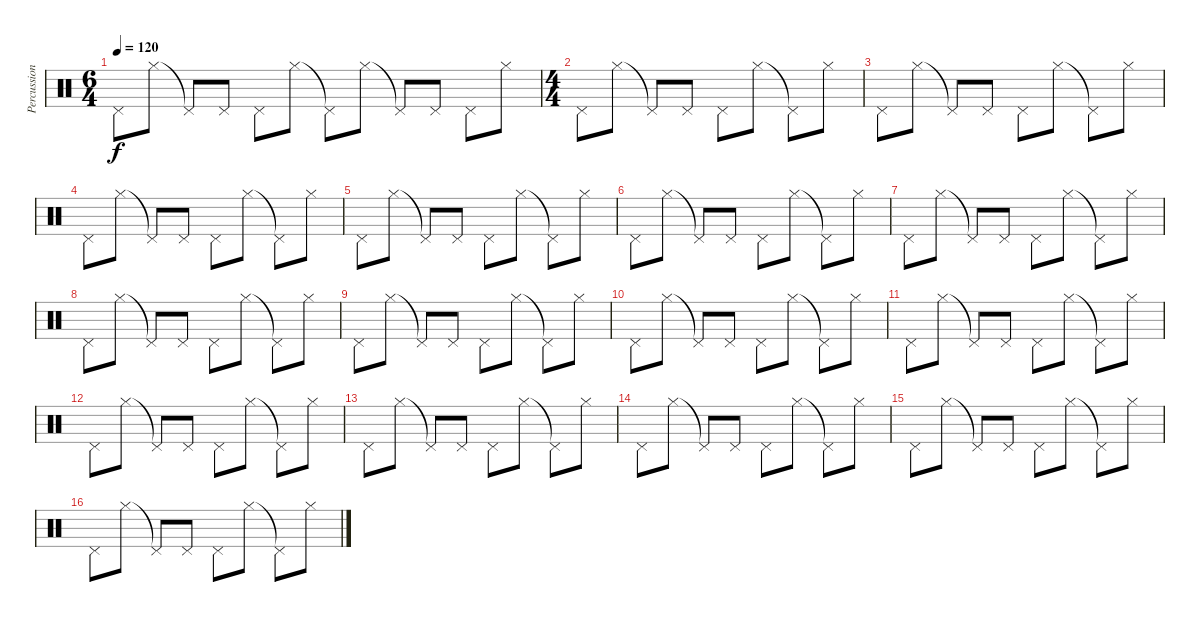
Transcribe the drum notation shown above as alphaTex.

\track ("Percussions" "Percussion") {instrument percussion}
\staff {score}
\articulation defaults
\ts (6 4)
\tempo 120
\clef neutral
\ks c "Pedal Hi-Hat (hit)".8{dy f} "Hi-Hat (closed)".8 "Pedal Hi-Hat (hit)"{t}.8 "Pedal Hi-Hat (hit)".8 "Pedal Hi-Hat (hit)".8 "Hi-Hat (closed)".8 "Pedal Hi-Hat (hit)"{t}.8 "Hi-Hat (closed)".8 "Pedal Hi-Hat (hit)"{t}.8 "Pedal Hi-Hat (hit)".8 "Pedal Hi-Hat (hit)".8 "Hi-Hat (closed)".8
|
\ts (4 4)
"Pedal Hi-Hat (hit)".8 "Hi-Hat (closed)".8 "Pedal Hi-Hat (hit)"{t}.8 "Pedal Hi-Hat (hit)".8 "Pedal Hi-Hat (hit)".8 "Hi-Hat (closed)".8 "Pedal Hi-Hat (hit)"{t}.8 "Hi-Hat (closed)".8 |
"Pedal Hi-Hat (hit)".8 "Hi-Hat (closed)".8 "Pedal Hi-Hat (hit)"{t}.8 "Pedal Hi-Hat (hit)".8 "Pedal Hi-Hat (hit)".8 "Hi-Hat (closed)".8 "Pedal Hi-Hat (hit)"{t}.8 "Hi-Hat (closed)".8 |
"Pedal Hi-Hat (hit)".8 "Hi-Hat (closed)".8 "Pedal Hi-Hat (hit)"{t}.8 "Pedal Hi-Hat (hit)".8 "Pedal Hi-Hat (hit)".8 "Hi-Hat (closed)".8 "Pedal Hi-Hat (hit)"{t}.8 "Hi-Hat (closed)".8 |
"Pedal Hi-Hat (hit)".8 "Hi-Hat (closed)".8 "Pedal Hi-Hat (hit)"{t}.8 "Pedal Hi-Hat (hit)".8 "Pedal Hi-Hat (hit)".8 "Hi-Hat (closed)".8 "Pedal Hi-Hat (hit)"{t}.8 "Hi-Hat (closed)".8 |
"Pedal Hi-Hat (hit)".8 "Hi-Hat (closed)".8 "Pedal Hi-Hat (hit)"{t}.8 "Pedal Hi-Hat (hit)".8 "Pedal Hi-Hat (hit)".8 "Hi-Hat (closed)".8 "Pedal Hi-Hat (hit)"{t}.8 "Hi-Hat (closed)".8 |
"Pedal Hi-Hat (hit)".8 "Hi-Hat (closed)".8 "Pedal Hi-Hat (hit)"{t}.8 "Pedal Hi-Hat (hit)".8 "Pedal Hi-Hat (hit)".8 "Hi-Hat (closed)".8 "Pedal Hi-Hat (hit)"{t}.8 "Hi-Hat (closed)".8 |
"Pedal Hi-Hat (hit)".8 "Hi-Hat (closed)".8 "Pedal Hi-Hat (hit)"{t}.8 "Pedal Hi-Hat (hit)".8 "Pedal Hi-Hat (hit)".8 "Hi-Hat (closed)".8 "Pedal Hi-Hat (hit)"{t}.8 "Hi-Hat (closed)".8 |
"Pedal Hi-Hat (hit)".8 "Hi-Hat (closed)".8 "Pedal Hi-Hat (hit)"{t}.8 "Pedal Hi-Hat (hit)".8 "Pedal Hi-Hat (hit)".8 "Hi-Hat (closed)".8 "Pedal Hi-Hat (hit)"{t}.8 "Hi-Hat (closed)".8 |
"Pedal Hi-Hat (hit)".8 "Hi-Hat (closed)".8 "Pedal Hi-Hat (hit)"{t}.8 "Pedal Hi-Hat (hit)".8 "Pedal Hi-Hat (hit)".8 "Hi-Hat (closed)".8 "Pedal Hi-Hat (hit)"{t}.8 "Hi-Hat (closed)".8 |
"Pedal Hi-Hat (hit)".8 "Hi-Hat (closed)".8 "Pedal Hi-Hat (hit)"{t}.8 "Pedal Hi-Hat (hit)".8 "Pedal Hi-Hat (hit)".8 "Hi-Hat (closed)".8 "Pedal Hi-Hat (hit)"{t}.8 "Hi-Hat (closed)".8 |
"Pedal Hi-Hat (hit)".8 "Hi-Hat (closed)".8 "Pedal Hi-Hat (hit)"{t}.8 "Pedal Hi-Hat (hit)".8 "Pedal Hi-Hat (hit)".8 "Hi-Hat (closed)".8 "Pedal Hi-Hat (hit)"{t}.8 "Hi-Hat (closed)".8 |
"Pedal Hi-Hat (hit)".8 "Hi-Hat (closed)".8 "Pedal Hi-Hat (hit)"{t}.8 "Pedal Hi-Hat (hit)".8 "Pedal Hi-Hat (hit)".8 "Hi-Hat (closed)".8 "Pedal Hi-Hat (hit)"{t}.8 "Hi-Hat (closed)".8 |
"Pedal Hi-Hat (hit)".8 "Hi-Hat (closed)".8 "Pedal Hi-Hat (hit)"{t}.8 "Pedal Hi-Hat (hit)".8 "Pedal Hi-Hat (hit)".8 "Hi-Hat (closed)".8 "Pedal Hi-Hat (hit)"{t}.8 "Hi-Hat (closed)".8 |
"Pedal Hi-Hat (hit)".8 "Hi-Hat (closed)".8 "Pedal Hi-Hat (hit)"{t}.8 "Pedal Hi-Hat (hit)".8 "Pedal Hi-Hat (hit)".8 "Hi-Hat (closed)".8 "Pedal Hi-Hat (hit)"{t}.8 "Hi-Hat (closed)".8 |
"Pedal Hi-Hat (hit)".8 "Hi-Hat (closed)".8 "Pedal Hi-Hat (hit)"{t}.8 "Pedal Hi-Hat (hit)".8 "Pedal Hi-Hat (hit)".8 "Hi-Hat (closed)".8 "Pedal Hi-Hat (hit)"{t}.8 "Hi-Hat (closed)".8
